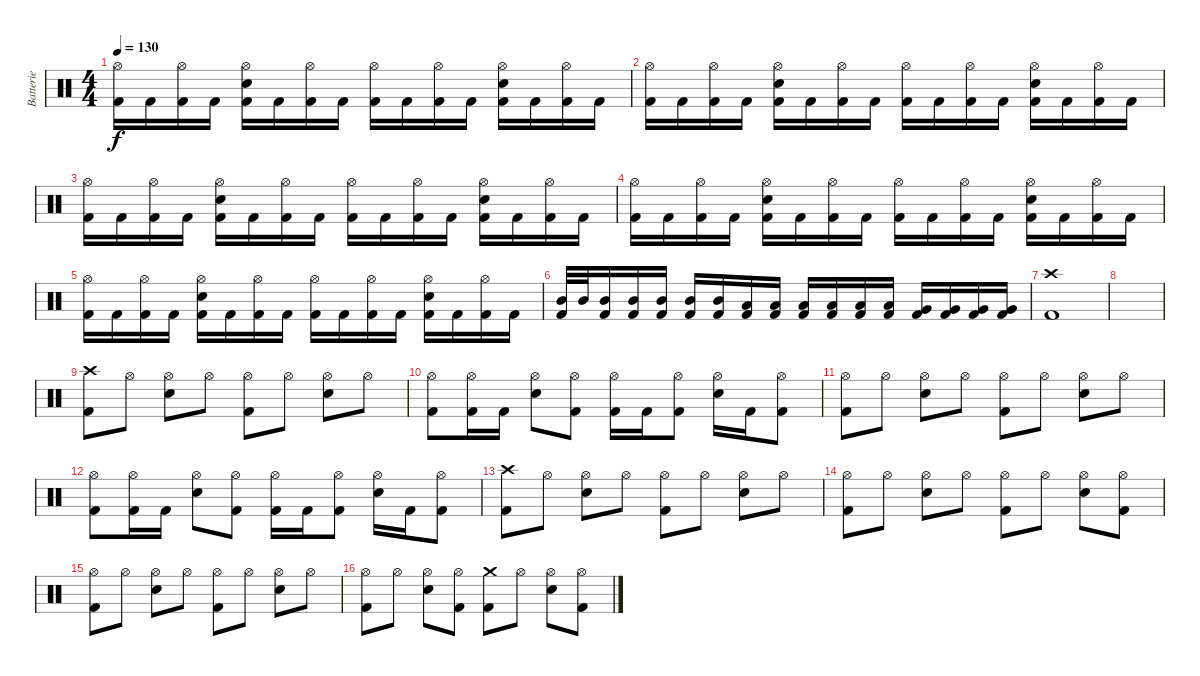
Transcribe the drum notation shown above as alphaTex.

\track ("Batterie" "Batterie") {instrument percussion}
\staff {score}
\articulation defaults
\ts (4 4)
\tempo 130
\clef neutral
\ks c
("Hi-Hat (open)" "Kick (hit) 2").16{dy f} "Kick (hit) 2".16 ("Hi-Hat (open)" "Kick (hit) 2").16 "Kick (hit) 2".16 ("Hi-Hat (open)" "Electric Snare (hit)" "Kick (hit) 2").16 "Kick (hit) 2".16 ("Hi-Hat (open)" "Kick (hit) 2").16 "Kick (hit) 2".16 ("Hi-Hat (open)" "Kick (hit) 2").16 "Kick (hit) 2".16 ("Hi-Hat (open)" "Kick (hit) 2").16 "Kick (hit) 2".16 ("Hi-Hat (open)" "Electric Snare (hit)" "Kick (hit) 2").16 "Kick (hit) 2".16 ("Hi-Hat (open)" "Kick (hit) 2").16 "Kick (hit) 2".16 |
("Hi-Hat (open)" "Kick (hit) 2").16 "Kick (hit) 2".16 ("Hi-Hat (open)" "Kick (hit) 2").16 "Kick (hit) 2".16 ("Hi-Hat (open)" "Electric Snare (hit)" "Kick (hit) 2").16 "Kick (hit) 2".16 ("Hi-Hat (open)" "Kick (hit) 2").16 "Kick (hit) 2".16 ("Hi-Hat (open)" "Kick (hit) 2").16 "Kick (hit) 2".16 ("Hi-Hat (open)" "Kick (hit) 2").16 "Kick (hit) 2".16 ("Hi-Hat (open)" "Electric Snare (hit)" "Kick (hit) 2").16 "Kick (hit) 2".16 ("Hi-Hat (open)" "Kick (hit) 2").16 "Kick (hit) 2".16 |
("Hi-Hat (open)" "Kick (hit) 2").16 "Kick (hit) 2".16 ("Hi-Hat (open)" "Kick (hit) 2").16 "Kick (hit) 2".16 ("Hi-Hat (open)" "Electric Snare (hit)" "Kick (hit) 2").16 "Kick (hit) 2".16 ("Hi-Hat (open)" "Kick (hit) 2").16 "Kick (hit) 2".16 ("Hi-Hat (open)" "Kick (hit) 2").16 "Kick (hit) 2".16 ("Hi-Hat (open)" "Kick (hit) 2").16 "Kick (hit) 2".16 ("Hi-Hat (open)" "Electric Snare (hit)" "Kick (hit) 2").16 "Kick (hit) 2".16 ("Hi-Hat (open)" "Kick (hit) 2").16 "Kick (hit) 2".16 |
("Hi-Hat (open)" "Kick (hit) 2").16 "Kick (hit) 2".16 ("Hi-Hat (open)" "Kick (hit) 2").16 "Kick (hit) 2".16 ("Hi-Hat (open)" "Electric Snare (hit)" "Kick (hit) 2").16 "Kick (hit) 2".16 ("Hi-Hat (open)" "Kick (hit) 2").16 "Kick (hit) 2".16 ("Hi-Hat (open)" "Kick (hit) 2").16 "Kick (hit) 2".16 ("Hi-Hat (open)" "Kick (hit) 2").16 "Kick (hit) 2".16 ("Hi-Hat (open)" "Electric Snare (hit)" "Kick (hit) 2").16 "Kick (hit) 2".16 ("Hi-Hat (open)" "Kick (hit) 2").16 "Kick (hit) 2".16 |
("Hi-Hat (open)" "Kick (hit) 2").16 "Kick (hit) 2".16 ("Hi-Hat (open)" "Kick (hit) 2").16 "Kick (hit) 2".16 ("Hi-Hat (open)" "Electric Snare (hit)" "Kick (hit) 2").16 "Kick (hit) 2".16 ("Hi-Hat (open)" "Kick (hit) 2").16 "Kick (hit) 2".16 ("Hi-Hat (open)" "Kick (hit) 2").16 "Kick (hit) 2".16 ("Hi-Hat (open)" "Kick (hit) 2").16 "Kick (hit) 2".16 ("Hi-Hat (open)" "Electric Snare (hit)" "Kick (hit) 2").16 "Kick (hit) 2".16 ("Hi-Hat (open)" "Kick (hit) 2").16 "Kick (hit) 2".16 |
("Mid Tom (hit)" "Kick (hit) 2").32 "Mid Tom (hit)".32 ("Mid Tom (hit)" "Kick (hit) 2").16 ("Mid Tom (hit)" "Kick (hit) 2").16 ("Mid Tom (hit)" "Kick (hit) 2").16 ("Mid Tom (hit)" "Kick (hit) 2").16 ("Mid Tom (hit)" "Kick (hit) 2").16 ("Low Tom (hit)" "Kick (hit) 2").16 ("Low Tom (hit)" "Kick (hit) 2").16 ("Low Tom (hit)" "Kick (hit) 2").16 ("Low Tom (hit)" "Kick (hit) 2").16 ("Low Tom (hit)" "Kick (hit) 2").16 ("Low Tom (hit)" "Kick (hit) 2").16 ("Very Low Tom (hit)" "Kick (hit) 2").16 ("Very Low Tom (hit)" "Kick (hit) 2").16 ("Very Low Tom (hit)" "Kick (hit) 2").16 ("Very Low Tom (hit)" "Kick (hit) 2").16 |
("Crash high (hit)" "Kick (hit) 2").1 |
|
("Crash high (hit)" "Kick (hit) 2").8 "Hi-Hat (open)".8 ("Hi-Hat (open)" "Electric Snare (hit)").8 "Hi-Hat (open)".8 ("Hi-Hat (open)" "Kick (hit) 2").8 "Hi-Hat (open)".8 ("Hi-Hat (open)" "Electric Snare (hit)").8 "Hi-Hat (open)".8 |
("Hi-Hat (open)" "Kick (hit) 2").8 ("Hi-Hat (open)" "Kick (hit) 2").16 "Kick (hit) 2".16 ("Hi-Hat (open)" "Electric Snare (hit)").8 ("Hi-Hat (open)" "Kick (hit) 2").8 ("Hi-Hat (open)" "Kick (hit) 2").16 "Kick (hit) 2".16 ("Hi-Hat (open)" "Kick (hit) 2").8 ("Hi-Hat (open)" "Electric Snare (hit)").16 "Kick (hit) 2".16 ("Hi-Hat (open)" "Kick (hit) 2").8 |
("Hi-Hat (open)" "Kick (hit) 2").8 "Hi-Hat (open)".8 ("Hi-Hat (open)" "Electric Snare (hit)").8 "Hi-Hat (open)".8 ("Hi-Hat (open)" "Kick (hit) 2").8 "Hi-Hat (open)".8 ("Hi-Hat (open)" "Electric Snare (hit)").8 "Hi-Hat (open)".8 |
("Hi-Hat (open)" "Kick (hit) 2").8 ("Hi-Hat (open)" "Kick (hit) 2").16 "Kick (hit) 2".16 ("Hi-Hat (open)" "Electric Snare (hit)").8 ("Hi-Hat (open)" "Kick (hit) 2").8 ("Hi-Hat (open)" "Kick (hit) 2").16 "Kick (hit) 2".16 ("Hi-Hat (open)" "Kick (hit) 2").8 ("Hi-Hat (open)" "Electric Snare (hit)").16 "Kick (hit) 2".16 ("Hi-Hat (open)" "Kick (hit) 2").8 |
("Crash high (hit)" "Kick (hit) 2").8 "Hi-Hat (open)".8 ("Hi-Hat (open)" "Electric Snare (hit)").8 "Hi-Hat (open)".8 ("Hi-Hat (open)" "Kick (hit) 2").8 "Hi-Hat (open)".8 ("Hi-Hat (open)" "Electric Snare (hit)").8 "Hi-Hat (open)".8 |
("Hi-Hat (open)" "Kick (hit) 2").8 "Hi-Hat (open)".8 ("Hi-Hat (open)" "Electric Snare (hit)").8 "Hi-Hat (open)".8 ("Hi-Hat (open)" "Kick (hit) 2").8 "Hi-Hat (open)".8 ("Hi-Hat (open)" "Electric Snare (hit)").8 ("Hi-Hat (open)" "Kick (hit) 2").8 |
("Hi-Hat (open)" "Kick (hit) 2").8 "Hi-Hat (open)".8 ("Hi-Hat (open)" "Electric Snare (hit)").8 "Hi-Hat (open)".8 ("Hi-Hat (open)" "Kick (hit) 2").8 "Hi-Hat (open)".8 ("Hi-Hat (open)" "Electric Snare (hit)").8 "Hi-Hat (open)".8 |
("Hi-Hat (open)" "Kick (hit) 2").8 "Hi-Hat (open)".8 ("Hi-Hat (open)" "Electric Snare (hit)").8 ("Hi-Hat (open)" "Kick (hit) 2").8 ("Crash medium (hit)" "Kick (hit) 2").8 "Hi-Hat (open)".8 ("Hi-Hat (open)" "Electric Snare (hit)").8 ("Hi-Hat (open)" "Kick (hit) 2").8
